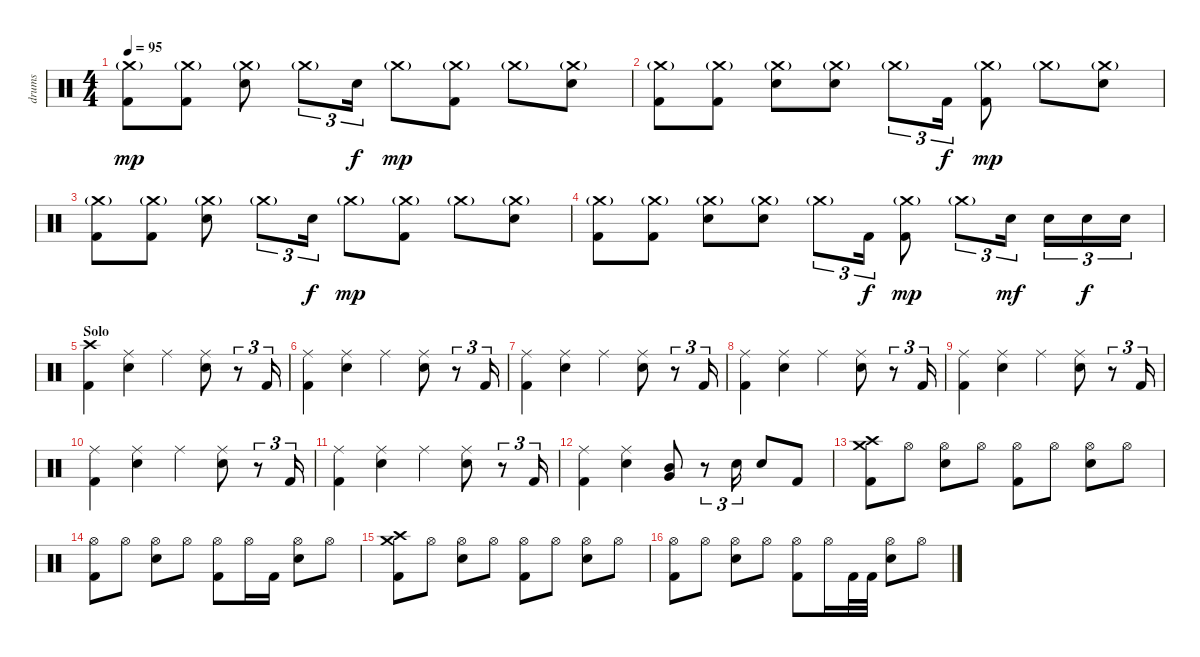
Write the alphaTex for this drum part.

\track ("drums" "drums") {instrument percussion}
\staff {score}
\articulation defaults
\ts (4 4)
\tempo 95
\clef neutral
\ks c
("Crash medium (hit)"{g} "Kick (hit) 2").8{dy mp} ("Crash medium (hit)"{g} "Kick (hit) 2").8 ("Crash medium (hit)"{g} "Electric Snare (hit)").8 "Crash medium (hit)"{g}.8{tu (3 2)} "Electric Snare (hit)".16{tu (3 2) dy f} "Crash medium (hit)"{g}.8{dy mp} ("Crash medium (hit)"{g} "Kick (hit) 2").8 "Crash medium (hit)"{g}.8 ("Crash medium (hit)"{g} "Electric Snare (hit)").8 |
("Crash medium (hit)"{g} "Kick (hit) 2").8 ("Crash medium (hit)"{g} "Kick (hit) 2").8 ("Crash medium (hit)"{g} "Electric Snare (hit)").8 ("Crash medium (hit)"{g} "Electric Snare (hit)").8 "Crash medium (hit)"{g}.8{tu (3 2)} "Kick (hit) 2".16{tu (3 2) dy f} ("Crash medium (hit)"{g} "Kick (hit) 2").8{dy mp} "Crash medium (hit)"{g}.8 ("Crash medium (hit)"{g} "Electric Snare (hit)").8 |
("Crash medium (hit)"{g} "Kick (hit) 2").8 ("Crash medium (hit)"{g} "Kick (hit) 2").8 ("Crash medium (hit)"{g} "Electric Snare (hit)").8 "Crash medium (hit)"{g}.8{tu (3 2)} "Electric Snare (hit)".16{tu (3 2) dy f} "Crash medium (hit)"{g}.8{dy mp} ("Crash medium (hit)"{g} "Kick (hit) 2").8 "Crash medium (hit)"{g}.8 ("Crash medium (hit)"{g} "Electric Snare (hit)").8 |
("Crash medium (hit)"{g} "Kick (hit) 2").8 ("Crash medium (hit)"{g} "Kick (hit) 2").8 ("Crash medium (hit)"{g} "Electric Snare (hit)").8 ("Crash medium (hit)"{g} "Electric Snare (hit)").8 "Crash medium (hit)"{g}.8{tu (3 2)} "Kick (hit) 2".16{tu (3 2) dy f} ("Crash medium (hit)"{g} "Kick (hit) 2").8{dy mp} "Crash medium (hit)"{g}.8{tu (3 2)} "Electric Snare (hit)".16{tu (3 2) dy mf} "Electric Snare (hit)".16{tu (3 2)} "Electric Snare (hit)".16{tu (3 2) dy f} "Electric Snare (hit)".16{tu (3 2)} |
\section ("" "Solo")
("Crash high (hit)" "Kick (hit) 2").4 ("Ride (middle)" "Electric Snare (hit)").4 "Ride (middle)".4 ("Ride (middle)" "Electric Snare (hit)").8 r.8{tu (3 2)} "Kick (hit) 2".16{tu (3 2)} |
("Ride (middle)" "Kick (hit) 2").4 ("Ride (middle)" "Electric Snare (hit)").4 "Ride (middle)".4 ("Ride (middle)" "Electric Snare (hit)").8 r.8{tu (3 2)} "Kick (hit) 2".16{tu (3 2)} |
("Ride (middle)" "Kick (hit) 2").4 ("Ride (middle)" "Electric Snare (hit)").4 "Ride (middle)".4 ("Ride (middle)" "Electric Snare (hit)").8 r.8{tu (3 2)} "Kick (hit) 2".16{tu (3 2)} |
("Ride (middle)" "Kick (hit) 2").4 ("Ride (middle)" "Electric Snare (hit)").4 "Ride (middle)".4 ("Ride (middle)" "Electric Snare (hit)").8 r.8{tu (3 2)} "Kick (hit) 2".16{tu (3 2)} |
("Ride (middle)" "Kick (hit) 2").4 ("Ride (middle)" "Electric Snare (hit)").4 "Ride (middle)".4 ("Ride (middle)" "Electric Snare (hit)").8 r.8{tu (3 2)} "Kick (hit) 2".16{tu (3 2)} |
("Ride (middle)" "Kick (hit) 2").4 ("Ride (middle)" "Electric Snare (hit)").4 "Ride (middle)".4 ("Ride (middle)" "Electric Snare (hit)").8 r.8{tu (3 2)} "Kick (hit) 2".16{tu (3 2)} |
("Ride (middle)" "Kick (hit) 2").4 ("Ride (middle)" "Electric Snare (hit)").4 "Ride (middle)".4 ("Ride (middle)" "Electric Snare (hit)").8 r.8{tu (3 2)} "Kick (hit) 2".16{tu (3 2)} |
("Ride (middle)" "Kick (hit) 2").4 ("Ride (middle)" "Electric Snare (hit)").4 ("Mid Tom (hit)" "Very Low Tom (hit)").8 r.8{tu (3 2)} "Electric Snare (hit)".16{tu (3 2)} "Electric Snare (hit)".8 "Kick (hit) 2".8 |
("Crash high (hit)" "Crash medium (hit)" "Kick (hit) 2").8 "Hi-Hat (open)".8 ("Hi-Hat (open)" "Electric Snare (hit)").8 "Hi-Hat (open)".8 ("Hi-Hat (open)" "Kick (hit) 2").8 "Hi-Hat (open)".8 ("Hi-Hat (open)" "Electric Snare (hit)").8 "Hi-Hat (open)".8 |
("Hi-Hat (open)" "Kick (hit) 2").8 "Hi-Hat (open)".8 ("Hi-Hat (open)" "Electric Snare (hit)").8 "Hi-Hat (open)".8 ("Hi-Hat (open)" "Kick (hit) 2").8 "Hi-Hat (open)".16 "Kick (hit) 2".16 ("Hi-Hat (open)" "Electric Snare (hit)").8 "Hi-Hat (open)".8 |
("Crash high (hit)" "Crash medium (hit)" "Kick (hit) 2").8 "Hi-Hat (open)".8 ("Hi-Hat (open)" "Electric Snare (hit)").8 "Hi-Hat (open)".8 ("Hi-Hat (open)" "Kick (hit) 2").8 "Hi-Hat (open)".8 ("Hi-Hat (open)" "Electric Snare (hit)").8 "Hi-Hat (open)".8 |
("Hi-Hat (open)" "Kick (hit) 2").8 "Hi-Hat (open)".8 ("Hi-Hat (open)" "Electric Snare (hit)").8 "Hi-Hat (open)".8 ("Hi-Hat (open)" "Kick (hit) 2").8 "Hi-Hat (open)".16 "Kick (hit) 2".32 "Kick (hit) 2".32 ("Hi-Hat (open)" "Electric Snare (hit)").8 "Hi-Hat (open)".8
